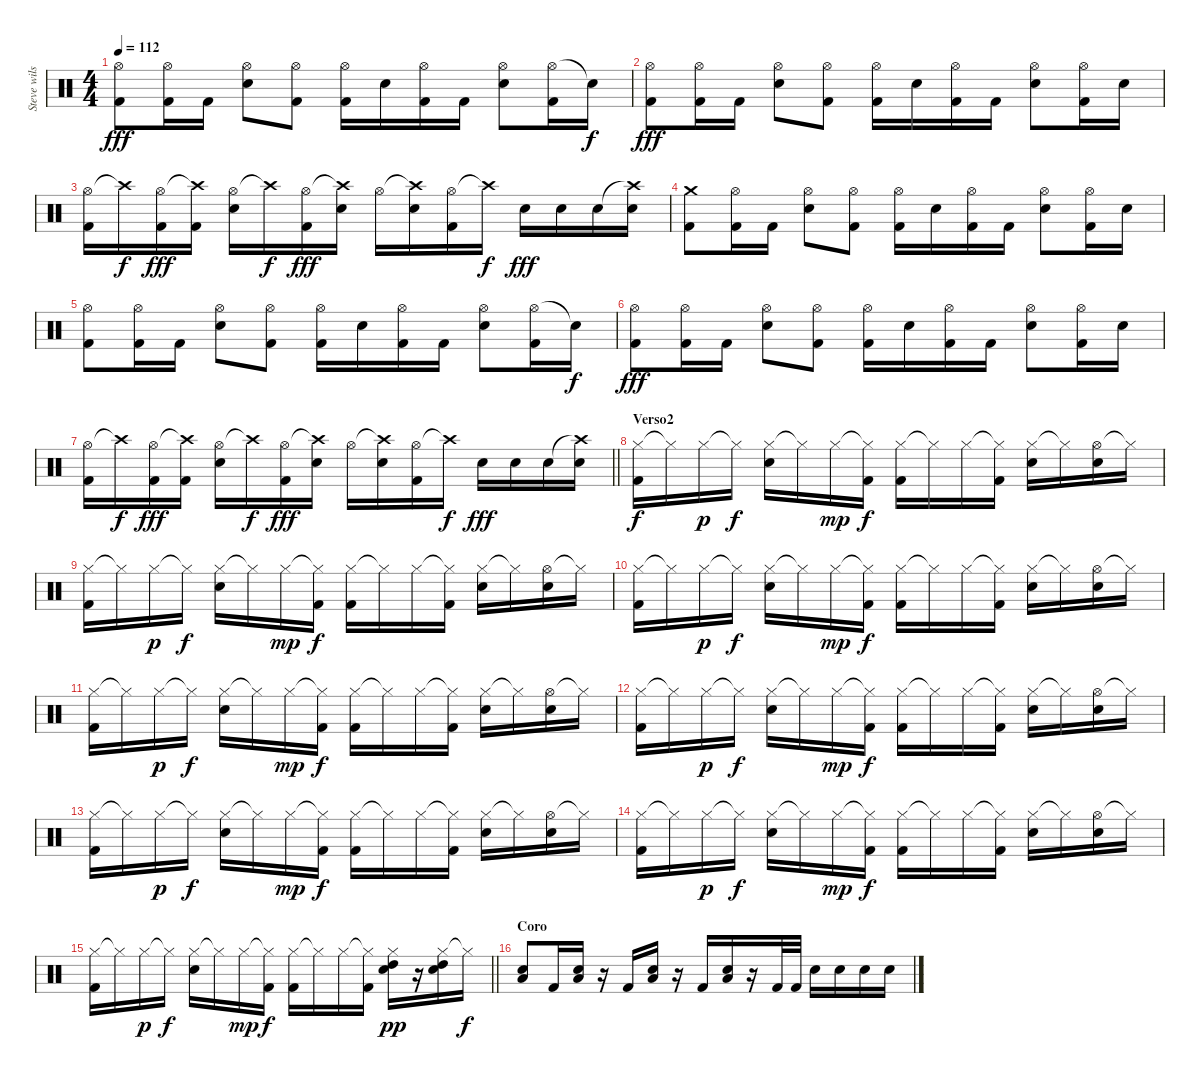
\track ("Steve wilson" "Steve wils") {instrument percussion}
\staff {score}
\articulation defaults
\ts (4 4)
\tempo 112
\clef neutral
\ks c
("Hi-Hat (open)" "Kick (hit) 2").8{dy fff} ("Hi-Hat (open)" "Kick (hit) 2").16 "Kick (hit) 2".16 ("Hi-Hat (open)" "Electric Snare (hit)").8 ("Hi-Hat (open)" "Kick (hit) 2").8 ("Hi-Hat (open)" "Kick (hit) 2").16 "Electric Snare (hit)".16 ("Hi-Hat (open)" "Kick (hit) 2").16 "Kick (hit) 2".16 ("Hi-Hat (open)" "Electric Snare (hit)").8 ("Hi-Hat (open)" "Kick (hit) 2").16 "Snare (hit)"{t}.16{dy f} |
("Hi-Hat (open)" "Kick (hit) 2").8{dy fff} ("Hi-Hat (open)" "Kick (hit) 2").16 "Kick (hit) 2".16 ("Hi-Hat (open)" "Electric Snare (hit)").8 ("Hi-Hat (open)" "Kick (hit) 2").8 ("Hi-Hat (open)" "Kick (hit) 2").16 "Electric Snare (hit)".16 ("Hi-Hat (open)" "Kick (hit) 2").16 "Kick (hit) 2".16 ("Hi-Hat (open)" "Electric Snare (hit)").8 ("Hi-Hat (open)" "Kick (hit) 2").16 "Electric Snare (hit)".16 |
("Hi-Hat (open)" "Kick (hit) 2").16 "Crash high (hit)"{t}.16{dy f} ("Hi-Hat (open)" "Kick (hit) 2").16{dy fff} ("Crash high (hit)"{t} "Kick (hit) 2").16 ("Hi-Hat (open)" "Electric Snare (hit)").16 "Crash high (hit)"{t}.16{dy f} ("Hi-Hat (open)" "Kick (hit) 2").16{dy fff} ("Crash high (hit)"{t} "Electric Snare (hit)").16 "Hi-Hat (open)".16 ("Crash high (hit)"{t} "Electric Snare (hit)").16 ("Hi-Hat (open)" "Kick (hit) 2").16 "Crash high (hit)"{t}.16{dy f} "Electric Snare (hit)".16{dy fff} "Electric Snare (hit)".16 "Electric Snare (hit)".16 ("Crash high (hit)"{t} "Electric Snare (hit)").16 |
("Crash medium (hit)" "Kick (hit) 2").8 ("Hi-Hat (open)" "Kick (hit) 2").16 "Kick (hit) 2".16 ("Hi-Hat (open)" "Electric Snare (hit)").8 ("Hi-Hat (open)" "Kick (hit) 2").8 ("Hi-Hat (open)" "Kick (hit) 2").16 "Electric Snare (hit)".16 ("Hi-Hat (open)" "Kick (hit) 2").16 "Kick (hit) 2".16 ("Hi-Hat (open)" "Electric Snare (hit)").8 ("Hi-Hat (open)" "Kick (hit) 2").16 "Electric Snare (hit)".16 |
("Hi-Hat (open)" "Kick (hit) 2").8 ("Hi-Hat (open)" "Kick (hit) 2").16 "Kick (hit) 2".16 ("Hi-Hat (open)" "Electric Snare (hit)").8 ("Hi-Hat (open)" "Kick (hit) 2").8 ("Hi-Hat (open)" "Kick (hit) 2").16 "Electric Snare (hit)".16 ("Hi-Hat (open)" "Kick (hit) 2").16 "Kick (hit) 2".16 ("Hi-Hat (open)" "Electric Snare (hit)").8 ("Hi-Hat (open)" "Kick (hit) 2").16 "Snare (hit)"{t}.16{dy f} |
("Hi-Hat (open)" "Kick (hit) 2").8{dy fff} ("Hi-Hat (open)" "Kick (hit) 2").16 "Kick (hit) 2".16 ("Hi-Hat (open)" "Electric Snare (hit)").8 ("Hi-Hat (open)" "Kick (hit) 2").8 ("Hi-Hat (open)" "Kick (hit) 2").16 "Electric Snare (hit)".16 ("Hi-Hat (open)" "Kick (hit) 2").16 "Kick (hit) 2".16 ("Hi-Hat (open)" "Electric Snare (hit)").8 ("Hi-Hat (open)" "Kick (hit) 2").16 "Electric Snare (hit)".16 |
\barLineRight lightlight
("Hi-Hat (open)" "Kick (hit) 2").16 "Crash high (hit)"{t}.16{dy f} ("Hi-Hat (open)" "Kick (hit) 2").16{dy fff} ("Crash high (hit)"{t} "Kick (hit) 2").16 ("Hi-Hat (open)" "Electric Snare (hit)").16 "Crash high (hit)"{t}.16{dy f} ("Hi-Hat (open)" "Kick (hit) 2").16{dy fff} ("Crash high (hit)"{t} "Electric Snare (hit)").16 "Hi-Hat (open)".16 ("Crash high (hit)"{t} "Electric Snare (hit)").16 ("Hi-Hat (open)" "Kick (hit) 2").16 "Crash high (hit)"{t}.16{dy f} "Electric Snare (hit)".16{dy fff} "Electric Snare (hit)".16 "Electric Snare (hit)".16 ("Crash high (hit)"{t} "Electric Snare (hit)").16 |
\section ("" "Verso2")
("Hi-Hat (closed)" "Kick (hit) 2").16{dy f} "Hi-Hat (closed)"{t}.16 "Hi-Hat (closed)".16{dy p} "Hi-Hat (closed)"{t}.16{dy f} ("Hi-Hat (closed)" "Electric Snare (hit)").16 "Hi-Hat (closed)"{t}.16 "Hi-Hat (closed)".16{dy mp} ("Hi-Hat (closed)"{t} "Kick (hit) 2").16{dy f} ("Hi-Hat (closed)" "Kick (hit) 2").16 "Hi-Hat (closed)"{t}.16 "Hi-Hat (closed)".16 ("Hi-Hat (closed)"{t} "Kick (hit) 2").16 ("Hi-Hat (closed)" "Electric Snare (hit)").16 "Hi-Hat (closed)"{t}.16 ("Hi-Hat (open)" "Electric Snare (hit)").16 "Hi-Hat (closed)"{t}.16 |
("Hi-Hat (closed)" "Kick (hit) 2").16 "Hi-Hat (closed)"{t}.16 "Hi-Hat (closed)".16{dy p} "Hi-Hat (closed)"{t}.16{dy f} ("Hi-Hat (closed)" "Electric Snare (hit)").16 "Hi-Hat (closed)"{t}.16 "Hi-Hat (closed)".16{dy mp} ("Hi-Hat (closed)"{t} "Kick (hit) 2").16{dy f} ("Hi-Hat (closed)" "Kick (hit) 2").16 "Hi-Hat (closed)"{t}.16 "Hi-Hat (closed)".16 ("Hi-Hat (closed)"{t} "Kick (hit) 2").16 ("Hi-Hat (closed)" "Electric Snare (hit)").16 "Hi-Hat (closed)"{t}.16 ("Hi-Hat (open)" "Electric Snare (hit)").16 "Hi-Hat (closed)"{t}.16 |
("Hi-Hat (closed)" "Kick (hit) 2").16 "Hi-Hat (closed)"{t}.16 "Hi-Hat (closed)".16{dy p} "Hi-Hat (closed)"{t}.16{dy f} ("Hi-Hat (closed)" "Electric Snare (hit)").16 "Hi-Hat (closed)"{t}.16 "Hi-Hat (closed)".16{dy mp} ("Hi-Hat (closed)"{t} "Kick (hit) 2").16{dy f} ("Hi-Hat (closed)" "Kick (hit) 2").16 "Hi-Hat (closed)"{t}.16 "Hi-Hat (closed)".16 ("Hi-Hat (closed)"{t} "Kick (hit) 2").16 ("Hi-Hat (closed)" "Electric Snare (hit)").16 "Hi-Hat (closed)"{t}.16 ("Hi-Hat (open)" "Electric Snare (hit)").16 "Hi-Hat (closed)"{t}.16 |
("Hi-Hat (closed)" "Kick (hit) 2").16 "Hi-Hat (closed)"{t}.16 "Hi-Hat (closed)".16{dy p} "Hi-Hat (closed)"{t}.16{dy f} ("Hi-Hat (closed)" "Electric Snare (hit)").16 "Hi-Hat (closed)"{t}.16 "Hi-Hat (closed)".16{dy mp} ("Hi-Hat (closed)"{t} "Kick (hit) 2").16{dy f} ("Hi-Hat (closed)" "Kick (hit) 2").16 "Hi-Hat (closed)"{t}.16 "Hi-Hat (closed)".16 ("Hi-Hat (closed)"{t} "Kick (hit) 2").16 ("Hi-Hat (closed)" "Electric Snare (hit)").16 "Hi-Hat (closed)"{t}.16 ("Hi-Hat (open)" "Electric Snare (hit)").16 "Hi-Hat (closed)"{t}.16 |
("Hi-Hat (closed)" "Kick (hit) 2").16 "Hi-Hat (closed)"{t}.16 "Hi-Hat (closed)".16{dy p} "Hi-Hat (closed)"{t}.16{dy f} ("Hi-Hat (closed)" "Electric Snare (hit)").16 "Hi-Hat (closed)"{t}.16 "Hi-Hat (closed)".16{dy mp} ("Hi-Hat (closed)"{t} "Kick (hit) 2").16{dy f} ("Hi-Hat (closed)" "Kick (hit) 2").16 "Hi-Hat (closed)"{t}.16 "Hi-Hat (closed)".16 ("Hi-Hat (closed)"{t} "Kick (hit) 2").16 ("Hi-Hat (closed)" "Electric Snare (hit)").16 "Hi-Hat (closed)"{t}.16 ("Hi-Hat (open)" "Electric Snare (hit)").16 "Hi-Hat (closed)"{t}.16 |
("Hi-Hat (closed)" "Kick (hit) 2").16 "Hi-Hat (closed)"{t}.16 "Hi-Hat (closed)".16{dy p} "Hi-Hat (closed)"{t}.16{dy f} ("Hi-Hat (closed)" "Electric Snare (hit)").16 "Hi-Hat (closed)"{t}.16 "Hi-Hat (closed)".16{dy mp} ("Hi-Hat (closed)"{t} "Kick (hit) 2").16{dy f} ("Hi-Hat (closed)" "Kick (hit) 2").16 "Hi-Hat (closed)"{t}.16 "Hi-Hat (closed)".16 ("Hi-Hat (closed)"{t} "Kick (hit) 2").16 ("Hi-Hat (closed)" "Electric Snare (hit)").16 "Hi-Hat (closed)"{t}.16 ("Hi-Hat (open)" "Electric Snare (hit)").16 "Hi-Hat (closed)"{t}.16 |
("Hi-Hat (closed)" "Kick (hit) 2").16 "Hi-Hat (closed)"{t}.16 "Hi-Hat (closed)".16{dy p} "Hi-Hat (closed)"{t}.16{dy f} ("Hi-Hat (closed)" "Electric Snare (hit)").16 "Hi-Hat (closed)"{t}.16 "Hi-Hat (closed)".16{dy mp} ("Hi-Hat (closed)"{t} "Kick (hit) 2").16{dy f} ("Hi-Hat (closed)" "Kick (hit) 2").16 "Hi-Hat (closed)"{t}.16 "Hi-Hat (closed)".16 ("Hi-Hat (closed)"{t} "Kick (hit) 2").16 ("Hi-Hat (closed)" "Electric Snare (hit)").16 "Hi-Hat (closed)"{t}.16 ("Hi-Hat (open)" "Electric Snare (hit)").16 "Hi-Hat (closed)"{t}.16 |
\barLineRight lightlight
("Hi-Hat (closed)" "Kick (hit) 2").16 "Hi-Hat (closed)"{t}.16 "Hi-Hat (closed)".16{dy p} "Hi-Hat (closed)"{t}.16{dy f} ("Hi-Hat (closed)" "Electric Snare (hit)").16 "Hi-Hat (closed)"{t}.16 "Hi-Hat (closed)".16{dy mp} ("Hi-Hat (closed)"{t} "Kick (hit) 2").16{dy f} ("Hi-Hat (closed)" "Kick (hit) 2").16 "Hi-Hat (closed)"{t}.16 "Hi-Hat (closed)".16 ("Hi-Hat (closed)"{t} "Kick (hit) 2").16 ("Hi-Hat (closed)" "High Tom (hit)" "Electric Snare (hit)").16{dy pp} r.16 ("Hi-Hat (closed)" "High Tom (hit)" "Electric Snare (hit)").16 "Hi-Hat (closed)"{t}.16{dy f} |
\section ("" "Coro")
("Low Tom (hit)" "Electric Snare (hit)").8 "Kick (hit) 2".16 ("Low Tom (hit)" "Electric Snare (hit)").16 r.16 "Kick (hit) 2".16 ("Low Tom (hit)" "Electric Snare (hit)").16 r.16 "Kick (hit) 2".16 ("Low Tom (hit)" "Electric Snare (hit)").16 r.16 "Kick (hit) 2".32 "Kick (hit) 2".32 "Electric Snare (hit)".16 "Electric Snare (hit)".16 "Electric Snare (hit)".16 "Electric Snare (hit)".16
